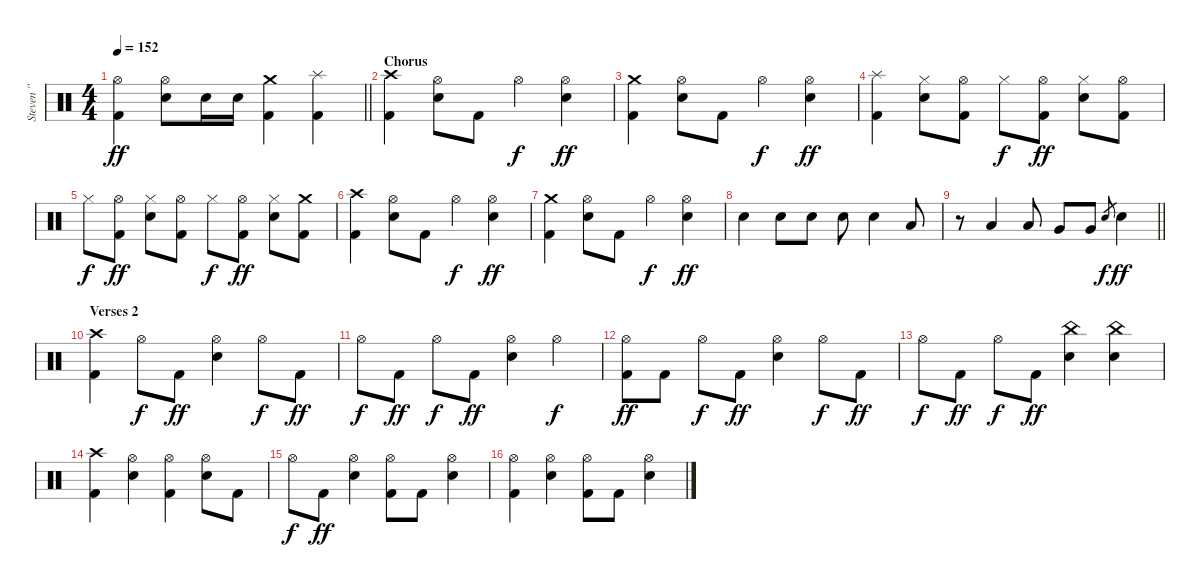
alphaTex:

\track ("Steven '' Popcorn '' Adler" "Steven '' ") {instrument percussion}
\staff {score}
\articulation defaults
\ts (4 4)
\tempo 152
\clef neutral
\barLineRight lightlight
\ks c
("Hi-Hat (open)" "Kick (hit) 2").4{dy ff} ("Hi-Hat (open)" "Snare (hit) 2").8 "Snare (hit) 2".16 "Snare (hit) 2".16 ("Crash medium (hit)" "Kick (hit) 2").4 ("Splash (hit)" "Kick (hit) 2").4 |
\section ("" "Chorus")
("Crash high (hit)" "Kick (hit) 2").4 ("Hi-Hat (open)" "Snare (hit) 2").8 "Kick (hit) 2".8 "Hi-Hat (open)".4{dy f} ("Hi-Hat (open)" "Snare (hit) 2").4{dy ff} |
("Crash medium (hit)" "Kick (hit) 2").4 ("Hi-Hat (open)" "Snare (hit) 2").8 "Kick (hit) 2".8 "Hi-Hat (open)".4{dy f} ("Hi-Hat (open)" "Snare (hit) 2").4{dy ff} |
("Splash (hit)" "Kick (hit) 2").4 ("Hi-Hat (closed)" "Snare (hit) 2").8 ("Hi-Hat (open)" "Kick (hit) 2").8 "Hi-Hat (closed)".8{dy f} ("Hi-Hat (open)" "Kick (hit) 2").8{dy ff} ("Hi-Hat (closed)" "Snare (hit) 2").8 ("Hi-Hat (open)" "Kick (hit) 2").8 |
"Hi-Hat (closed)".8{dy f} ("Hi-Hat (open)" "Kick (hit) 2").8{dy ff} ("Hi-Hat (closed)" "Snare (hit) 2").8 ("Hi-Hat (open)" "Kick (hit) 2").8 "Hi-Hat (closed)".8{dy f} ("Hi-Hat (open)" "Kick (hit) 2").8{dy ff} ("Hi-Hat (closed)" "Snare (hit) 2").8 ("Crash medium (hit)" "Kick (hit) 2").8 |
("Crash high (hit)" "Kick (hit) 2").4 ("Hi-Hat (open)" "Snare (hit) 2").8 "Kick (hit) 2".8 "Hi-Hat (open)".4{dy f} ("Hi-Hat (open)" "Snare (hit) 2").4{dy ff} |
("Crash medium (hit)" "Kick (hit) 2").4 ("Hi-Hat (open)" "Snare (hit) 2").8 "Kick (hit) 2".8 "Hi-Hat (open)".4{dy f} ("Hi-Hat (open)" "Snare (hit) 2").4{dy ff} |
"Snare (hit) 2".4 "Snare (hit) 2".8 "Snare (hit) 2".8 "Snare (hit) 2".8 "Snare (hit) 2".4 "Low Tom (hit)".8 |
\barLineRight lightlight
r.8 "Low Tom (hit)".4 "Low Tom (hit)".8 "Very Low Tom (hit)".8 "Very Low Tom (hit)".8 "Snare (hit) 2".8{gr dy f} "Snare (hit) 2".4{dy ff} |
\section ("" "Verses 2")
("Crash high (hit)" "Kick (hit) 2").4 "Hi-Hat (open)".8{dy f} "Kick (hit) 2".8{dy ff} ("Hi-Hat (open)" "Snare (hit) 2").4 "Hi-Hat (open)".8{dy f} "Kick (hit) 2".8{dy ff} |
"Hi-Hat (open)".8{dy f} "Kick (hit) 2".8{dy ff} "Hi-Hat (open)".8{dy f} "Kick (hit) 2".8{dy ff} ("Hi-Hat (open)" "Snare (hit) 2").4 "Hi-Hat (open)".4{dy f} |
("Hi-Hat (open)" "Kick (hit) 2").8{dy ff} "Kick (hit) 2".8 "Hi-Hat (open)".8{dy f} "Kick (hit) 2".8{dy ff} ("Hi-Hat (open)" "Snare (hit) 2").4 "Hi-Hat (open)".8{dy f} "Kick (hit) 2".8{dy ff} |
"Hi-Hat (open)".8{dy f} "Kick (hit) 2".8{dy ff} "Hi-Hat (open)".8{dy f} "Kick (hit) 2".8{dy ff} ("China (hit)" "Snare (hit) 2").4 ("China (hit)" "Snare (hit) 2").4 |
("Crash high (hit)" "Kick (hit) 2").4 ("Hi-Hat (open)" "Snare (hit) 2").4 ("Hi-Hat (open)" "Kick (hit) 2").4 ("Hi-Hat (open)" "Snare (hit) 2").8 "Kick (hit) 2".8 |
"Hi-Hat (open)".8{dy f} "Kick (hit) 2".8{dy ff} ("Hi-Hat (open)" "Snare (hit) 2").4 ("Hi-Hat (open)" "Kick (hit) 2").8 "Kick (hit) 2".8 ("Hi-Hat (open)" "Snare (hit) 2").4 |
("Hi-Hat (open)" "Kick (hit) 2").4 ("Hi-Hat (open)" "Snare (hit) 2").4 ("Hi-Hat (open)" "Kick (hit) 2").8 "Kick (hit) 2".8 ("Hi-Hat (open)" "Snare (hit) 2").4
